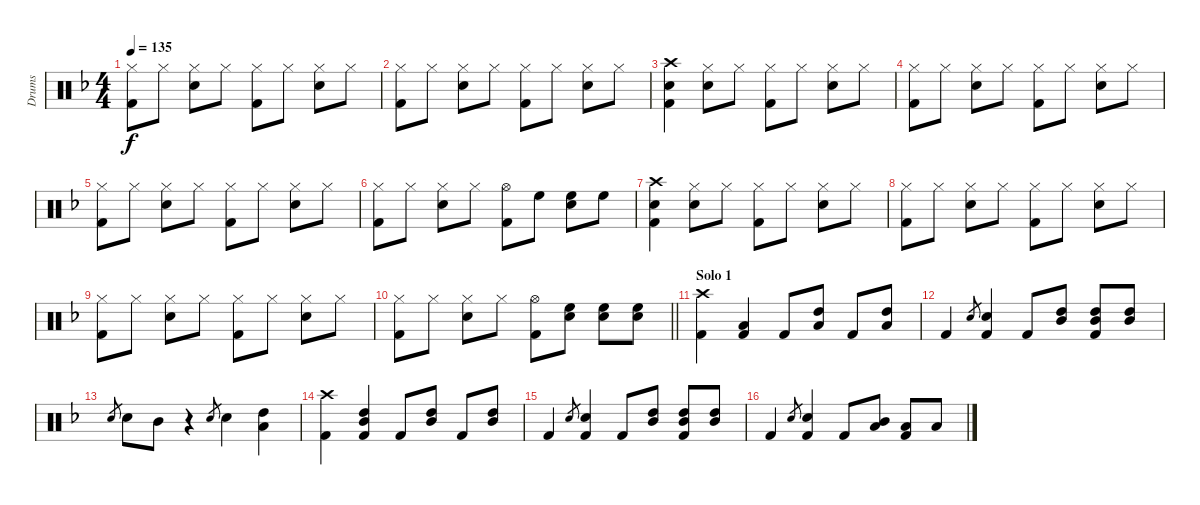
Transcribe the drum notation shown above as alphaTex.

\track ("Drums" "Drums") {instrument percussion}
\staff {score}
\articulation defaults
\ts (4 4)
\tempo 135
\clef neutral
\ks f
("Hi-Hat (closed)" "Kick (hit) 2").8{dy f} "Hi-Hat (closed)".8 ("Hi-Hat (closed)" "Snare (hit) 2").8 "Hi-Hat (closed)".8 ("Hi-Hat (closed)" "Kick (hit) 2").8 "Hi-Hat (closed)".8 ("Hi-Hat (closed)" "Snare (hit) 2").8 "Hi-Hat (closed)".8 |
("Hi-Hat (closed)" "Kick (hit) 2").8 "Hi-Hat (closed)".8 ("Hi-Hat (closed)" "Snare (hit) 2").8 "Hi-Hat (closed)".8 ("Hi-Hat (closed)" "Kick (hit) 2").8 "Hi-Hat (closed)".8 ("Hi-Hat (closed)" "Snare (hit) 2").8 "Hi-Hat (closed)".8 |
("Crash high (hit)" "Snare (hit) 2" "Kick (hit) 2").4 ("Hi-Hat (closed)" "Snare (hit) 2").8 "Hi-Hat (closed)".8 ("Hi-Hat (closed)" "Kick (hit) 2").8 "Hi-Hat (closed)".8 ("Hi-Hat (closed)" "Snare (hit) 2").8 "Hi-Hat (closed)".8 |
("Hi-Hat (closed)" "Kick (hit) 2").8 "Hi-Hat (closed)".8 ("Hi-Hat (closed)" "Snare (hit) 2").8 "Hi-Hat (closed)".8 ("Hi-Hat (closed)" "Kick (hit) 2").8 "Hi-Hat (closed)".8 ("Hi-Hat (closed)" "Snare (hit) 2").8 "Hi-Hat (closed)".8 |
("Hi-Hat (closed)" "Kick (hit) 2").8 "Hi-Hat (closed)".8 ("Hi-Hat (closed)" "Snare (hit) 2").8 "Hi-Hat (closed)".8 ("Hi-Hat (closed)" "Kick (hit) 2").8 "Hi-Hat (closed)".8 ("Hi-Hat (closed)" "Snare (hit) 2").8 "Hi-Hat (closed)".8 |
("Hi-Hat (closed)" "Kick (hit) 2").8 "Hi-Hat (closed)".8 ("Hi-Hat (closed)" "Snare (hit) 2").8 "Hi-Hat (closed)".8 ("Hi-Hat (open)" "Kick (hit) 2").8 "High Floor Tom (hit)".8 ("High Floor Tom (hit)" "Snare (hit) 2").8 "High Floor Tom (hit)".8 |
("Crash high (hit)" "Snare (hit) 2" "Kick (hit) 2").4 ("Hi-Hat (closed)" "Snare (hit) 2").8 "Hi-Hat (closed)".8 ("Hi-Hat (closed)" "Kick (hit) 2").8 "Hi-Hat (closed)".8 ("Hi-Hat (closed)" "Snare (hit) 2").8 "Hi-Hat (closed)".8 |
("Hi-Hat (closed)" "Kick (hit) 2").8 "Hi-Hat (closed)".8 ("Hi-Hat (closed)" "Snare (hit) 2").8 "Hi-Hat (closed)".8 ("Hi-Hat (closed)" "Kick (hit) 2").8 "Hi-Hat (closed)".8 ("Hi-Hat (closed)" "Snare (hit) 2").8 "Hi-Hat (closed)".8 |
("Hi-Hat (closed)" "Kick (hit) 2").8 "Hi-Hat (closed)".8 ("Hi-Hat (closed)" "Snare (hit) 2").8 "Hi-Hat (closed)".8 ("Hi-Hat (closed)" "Kick (hit) 2").8 "Hi-Hat (closed)".8 ("Hi-Hat (closed)" "Snare (hit) 2").8 "Hi-Hat (closed)".8 |
\barLineRight lightlight
("Hi-Hat (closed)" "Kick (hit) 2").8 "Hi-Hat (closed)".8 ("Hi-Hat (closed)" "Snare (hit) 2").8 "Hi-Hat (closed)".8 ("Hi-Hat (open)" "Kick (hit) 2").8 ("High Floor Tom (hit)" "Snare (hit) 2").8 ("High Floor Tom (hit)" "Snare (hit) 2").8 ("High Floor Tom (hit)" "Snare (hit) 2").8 |
\section ("" "Solo 1")
("Crash high (hit)" "Kick (hit) 2").4 ("Low Tom (hit)" "Kick (hit) 2").4 "Kick (hit) 2".8 ("High Tom (hit)" "Low Tom (hit)").8 "Kick (hit) 2".8 ("High Tom (hit)" "Low Tom (hit)").8 |
"Kick (hit) 2".4 "Snare (hit) 2".8{gr} ("Snare (hit) 2" "Kick (hit) 2").4 "Kick (hit) 2".8 ("High Tom (hit)" "Mid Tom (hit)").8 ("High Tom (hit)" "Mid Tom (hit)" "Kick (hit) 2").8 ("High Tom (hit)" "Mid Tom (hit)").8 |
"Snare (hit) 2".8{gr} "Snare (hit) 2".8 "Mid Tom (hit)".8 r.4 "Snare (hit) 2".8{gr} "Snare (hit) 2".4 ("High Tom (hit)" "Low Tom (hit)").4 |
("Crash high (hit)" "Kick (hit) 2").4 ("High Tom (hit)" "Mid Tom (hit)" "Kick (hit) 2").4 "Kick (hit) 2".8 ("High Tom (hit)" "Mid Tom (hit)").8 "Kick (hit) 2".8 ("High Tom (hit)" "Mid Tom (hit)").8 |
"Kick (hit) 2".4 "Snare (hit) 2".8{gr} ("Snare (hit) 2" "Kick (hit) 2").4 "Kick (hit) 2".8 ("High Tom (hit)" "Mid Tom (hit)").8 ("High Tom (hit)" "Mid Tom (hit)" "Kick (hit) 2").8 ("High Tom (hit)" "Mid Tom (hit)").8 |
"Kick (hit) 2".4 "Snare (hit) 2".8{gr} ("Snare (hit) 2" "Kick (hit) 2").4 "Kick (hit) 2".8 ("Mid Tom (hit)" "Low Tom (hit)").8 ("Low Tom (hit)" "Kick (hit) 2").8 "Low Tom (hit)".8
